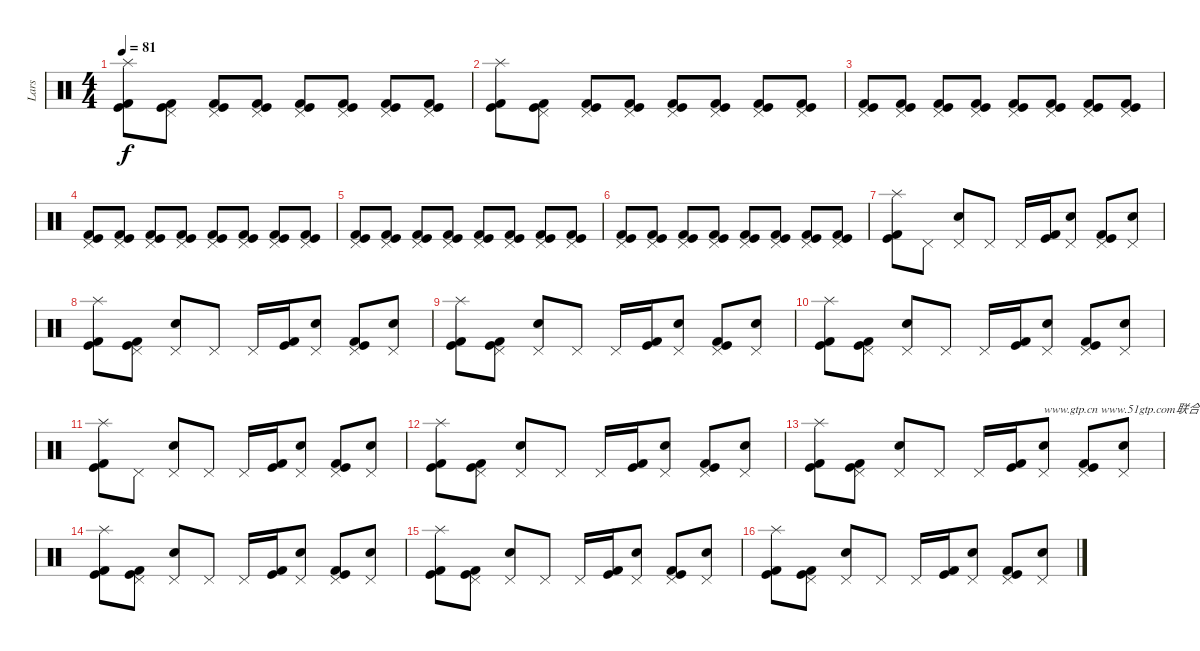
\track ("Lars" "Lars") {instrument percussion}
\staff {score}
\articulation defaults
\ts (4 4)
\tempo 81
\clef neutral
\ks c
("Splash (hit)" "Kick (hit)" "Kick (hit) 2").8{dy f} ("Pedal Hi-Hat (hit)" "Kick (hit)" "Kick (hit) 2").8 ("Pedal Hi-Hat (hit)" "Kick (hit)" "Kick (hit) 2").8 ("Pedal Hi-Hat (hit)" "Kick (hit)" "Kick (hit) 2").8 ("Pedal Hi-Hat (hit)" "Kick (hit)" "Kick (hit) 2").8 ("Pedal Hi-Hat (hit)" "Kick (hit)" "Kick (hit) 2").8 ("Pedal Hi-Hat (hit)" "Kick (hit)" "Kick (hit) 2").8 ("Pedal Hi-Hat (hit)" "Kick (hit)" "Kick (hit) 2").8 |
("Splash (hit)" "Kick (hit)" "Kick (hit) 2").8 ("Pedal Hi-Hat (hit)" "Kick (hit)" "Kick (hit) 2").8 ("Pedal Hi-Hat (hit)" "Kick (hit)" "Kick (hit) 2").8 ("Pedal Hi-Hat (hit)" "Kick (hit)" "Kick (hit) 2").8 ("Pedal Hi-Hat (hit)" "Kick (hit)" "Kick (hit) 2").8 ("Pedal Hi-Hat (hit)" "Kick (hit)" "Kick (hit) 2").8 ("Pedal Hi-Hat (hit)" "Kick (hit)" "Kick (hit) 2").8 ("Pedal Hi-Hat (hit)" "Kick (hit)" "Kick (hit) 2").8 |
("Pedal Hi-Hat (hit)" "Kick (hit)" "Kick (hit) 2").8 ("Pedal Hi-Hat (hit)" "Kick (hit)" "Kick (hit) 2").8 ("Pedal Hi-Hat (hit)" "Kick (hit)" "Kick (hit) 2").8 ("Pedal Hi-Hat (hit)" "Kick (hit)" "Kick (hit) 2").8 ("Pedal Hi-Hat (hit)" "Kick (hit)" "Kick (hit) 2").8 ("Pedal Hi-Hat (hit)" "Kick (hit)" "Kick (hit) 2").8 ("Pedal Hi-Hat (hit)" "Kick (hit)" "Kick (hit) 2").8 ("Pedal Hi-Hat (hit)" "Kick (hit)" "Kick (hit) 2").8 |
("Pedal Hi-Hat (hit)" "Kick (hit)" "Kick (hit) 2").8 ("Pedal Hi-Hat (hit)" "Kick (hit)" "Kick (hit) 2").8 ("Pedal Hi-Hat (hit)" "Kick (hit)" "Kick (hit) 2").8 ("Pedal Hi-Hat (hit)" "Kick (hit)" "Kick (hit) 2").8 ("Pedal Hi-Hat (hit)" "Kick (hit)" "Kick (hit) 2").8 ("Pedal Hi-Hat (hit)" "Kick (hit)" "Kick (hit) 2").8 ("Pedal Hi-Hat (hit)" "Kick (hit)" "Kick (hit) 2").8 ("Pedal Hi-Hat (hit)" "Kick (hit)" "Kick (hit) 2").8 |
("Pedal Hi-Hat (hit)" "Kick (hit)" "Kick (hit) 2").8 ("Pedal Hi-Hat (hit)" "Kick (hit)" "Kick (hit) 2").8 ("Pedal Hi-Hat (hit)" "Kick (hit)" "Kick (hit) 2").8 ("Pedal Hi-Hat (hit)" "Kick (hit)" "Kick (hit) 2").8 ("Pedal Hi-Hat (hit)" "Kick (hit)" "Kick (hit) 2").8 ("Pedal Hi-Hat (hit)" "Kick (hit)" "Kick (hit) 2").8 ("Pedal Hi-Hat (hit)" "Kick (hit)" "Kick (hit) 2").8 ("Pedal Hi-Hat (hit)" "Kick (hit)" "Kick (hit) 2").8 |
("Pedal Hi-Hat (hit)" "Kick (hit)" "Kick (hit) 2").8 ("Pedal Hi-Hat (hit)" "Kick (hit)" "Kick (hit) 2").8 ("Pedal Hi-Hat (hit)" "Kick (hit)" "Kick (hit) 2").8 ("Pedal Hi-Hat (hit)" "Kick (hit)" "Kick (hit) 2").8 ("Pedal Hi-Hat (hit)" "Kick (hit)" "Kick (hit) 2").8 ("Pedal Hi-Hat (hit)" "Kick (hit)" "Kick (hit) 2").8 ("Pedal Hi-Hat (hit)" "Kick (hit)" "Kick (hit) 2").8 ("Pedal Hi-Hat (hit)" "Kick (hit)" "Kick (hit) 2").8 |
("Splash (hit)" "Kick (hit)" "Kick (hit) 2").8 "Pedal Hi-Hat (hit)".8 ("Pedal Hi-Hat (hit)" "Electric Snare (hit)").8 "Pedal Hi-Hat (hit)".8 "Pedal Hi-Hat (hit)".16 ("Kick (hit)" "Kick (hit) 2").16 ("Pedal Hi-Hat (hit)" "Electric Snare (hit)").8 ("Pedal Hi-Hat (hit)" "Kick (hit)" "Kick (hit) 2").8 ("Pedal Hi-Hat (hit)" "Electric Snare (hit)").8 |
("Splash (hit)" "Kick (hit)" "Kick (hit) 2").8 ("Pedal Hi-Hat (hit)" "Kick (hit)" "Kick (hit) 2").8 ("Pedal Hi-Hat (hit)" "Electric Snare (hit)").8 "Pedal Hi-Hat (hit)".8 "Pedal Hi-Hat (hit)".16 ("Kick (hit)" "Kick (hit) 2").16 ("Pedal Hi-Hat (hit)" "Electric Snare (hit)").8 ("Pedal Hi-Hat (hit)" "Kick (hit)" "Kick (hit) 2").8 ("Pedal Hi-Hat (hit)" "Electric Snare (hit)").8 |
("Splash (hit)" "Kick (hit)" "Kick (hit) 2").8 ("Pedal Hi-Hat (hit)" "Kick (hit)" "Kick (hit) 2").8 ("Pedal Hi-Hat (hit)" "Electric Snare (hit)").8 "Pedal Hi-Hat (hit)".8 "Pedal Hi-Hat (hit)".16 ("Kick (hit)" "Kick (hit) 2").16 ("Pedal Hi-Hat (hit)" "Electric Snare (hit)").8 ("Pedal Hi-Hat (hit)" "Kick (hit)" "Kick (hit) 2").8 ("Pedal Hi-Hat (hit)" "Electric Snare (hit)").8 |
("Splash (hit)" "Kick (hit)" "Kick (hit) 2").8 ("Pedal Hi-Hat (hit)" "Kick (hit)" "Kick (hit) 2").8 ("Pedal Hi-Hat (hit)" "Electric Snare (hit)").8 "Pedal Hi-Hat (hit)".8 "Pedal Hi-Hat (hit)".16 ("Kick (hit)" "Kick (hit) 2").16 ("Pedal Hi-Hat (hit)" "Electric Snare (hit)").8 ("Pedal Hi-Hat (hit)" "Kick (hit)" "Kick (hit) 2").8 ("Pedal Hi-Hat (hit)" "Electric Snare (hit)").8 |
("Splash (hit)" "Kick (hit)" "Kick (hit) 2").8 "Pedal Hi-Hat (hit)".8 ("Pedal Hi-Hat (hit)" "Electric Snare (hit)").8 "Pedal Hi-Hat (hit)".8 "Pedal Hi-Hat (hit)".16 ("Kick (hit)" "Kick (hit) 2").16 ("Pedal Hi-Hat (hit)" "Electric Snare (hit)").8 ("Pedal Hi-Hat (hit)" "Kick (hit)" "Kick (hit) 2").8 ("Pedal Hi-Hat (hit)" "Electric Snare (hit)").8 |
("Splash (hit)" "Kick (hit)" "Kick (hit) 2").8 ("Pedal Hi-Hat (hit)" "Kick (hit)" "Kick (hit) 2").8 ("Pedal Hi-Hat (hit)" "Electric Snare (hit)").8 "Pedal Hi-Hat (hit)".8 "Pedal Hi-Hat (hit)".16 ("Kick (hit)" "Kick (hit) 2").16 ("Pedal Hi-Hat (hit)" "Electric Snare (hit)").8 ("Pedal Hi-Hat (hit)" "Kick (hit)" "Kick (hit) 2").8 ("Pedal Hi-Hat (hit)" "Electric Snare (hit)").8 |
("Splash (hit)" "Kick (hit)" "Kick (hit) 2").8 ("Pedal Hi-Hat (hit)" "Kick (hit)" "Kick (hit) 2").8 ("Pedal Hi-Hat (hit)" "Electric Snare (hit)").8 "Pedal Hi-Hat (hit)".8 "Pedal Hi-Hat (hit)".16 ("Kick (hit)" "Kick (hit) 2").16 ("Pedal Hi-Hat (hit)" "Electric Snare (hit)").8{txt "www.gtp.cn www.51gtp.com联合为您提供优秀的GTP!"} ("Pedal Hi-Hat (hit)" "Kick (hit)" "Kick (hit) 2").8 ("Pedal Hi-Hat (hit)" "Electric Snare (hit)").8 |
("Splash (hit)" "Kick (hit)" "Kick (hit) 2").8 ("Pedal Hi-Hat (hit)" "Kick (hit)" "Kick (hit) 2").8 ("Pedal Hi-Hat (hit)" "Electric Snare (hit)").8 "Pedal Hi-Hat (hit)".8 "Pedal Hi-Hat (hit)".16 ("Kick (hit)" "Kick (hit) 2").16 ("Pedal Hi-Hat (hit)" "Electric Snare (hit)").8 ("Pedal Hi-Hat (hit)" "Kick (hit)" "Kick (hit) 2").8 ("Pedal Hi-Hat (hit)" "Electric Snare (hit)").8 |
("Splash (hit)" "Kick (hit)" "Kick (hit) 2").8 ("Pedal Hi-Hat (hit)" "Kick (hit)" "Kick (hit) 2").8 ("Pedal Hi-Hat (hit)" "Electric Snare (hit)").8 "Pedal Hi-Hat (hit)".8 "Pedal Hi-Hat (hit)".16 ("Kick (hit)" "Kick (hit) 2").16 ("Pedal Hi-Hat (hit)" "Electric Snare (hit)").8 ("Pedal Hi-Hat (hit)" "Kick (hit)" "Kick (hit) 2").8 ("Pedal Hi-Hat (hit)" "Electric Snare (hit)").8 |
("Splash (hit)" "Kick (hit)" "Kick (hit) 2").8 ("Pedal Hi-Hat (hit)" "Kick (hit)" "Kick (hit) 2").8 ("Pedal Hi-Hat (hit)" "Electric Snare (hit)").8 "Pedal Hi-Hat (hit)".8 "Pedal Hi-Hat (hit)".16 ("Kick (hit)" "Kick (hit) 2").16 ("Pedal Hi-Hat (hit)" "Electric Snare (hit)").8 ("Pedal Hi-Hat (hit)" "Kick (hit)" "Kick (hit) 2").8 ("Pedal Hi-Hat (hit)" "Electric Snare (hit)").8
